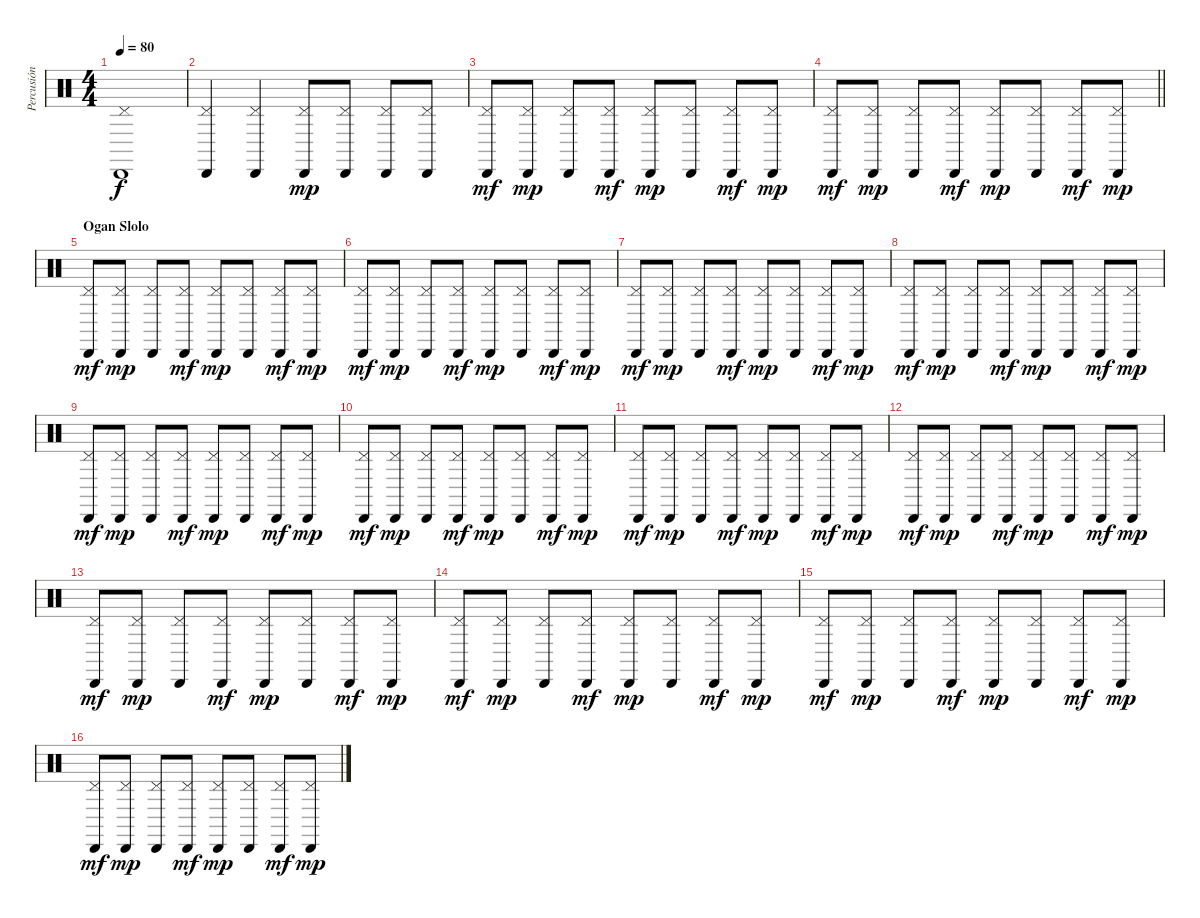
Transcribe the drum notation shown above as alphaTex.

\track ("Percusión" "Percusión") {instrument percussion}
\staff {score}
\articulation defaults
\ts (4 4)
\tempo 80
\clef neutral
\ks c
("Cabasa (hit)" "Pedal Hi-Hat (hit)").1{dy f} |
("Cabasa (hit)" "Pedal Hi-Hat (hit)").4 ("Cabasa (hit)" "Pedal Hi-Hat (hit)").4 ("Cabasa (hit)" "Pedal Hi-Hat (hit)").8{dy mp} ("Cabasa (hit)" "Pedal Hi-Hat (hit)").8 ("Cabasa (hit)" "Pedal Hi-Hat (hit)").8 ("Cabasa (hit)" "Pedal Hi-Hat (hit)").8 |
("Cabasa (hit)" "Pedal Hi-Hat (hit)").8{dy mf} ("Cabasa (hit)" "Pedal Hi-Hat (hit)").8{dy mp} ("Cabasa (hit)" "Pedal Hi-Hat (hit)").8 ("Cabasa (hit)" "Pedal Hi-Hat (hit)").8{dy mf} ("Cabasa (hit)" "Pedal Hi-Hat (hit)").8{dy mp} ("Cabasa (hit)" "Pedal Hi-Hat (hit)").8 ("Cabasa (hit)" "Pedal Hi-Hat (hit)").8{dy mf} ("Cabasa (hit)" "Pedal Hi-Hat (hit)").8{dy mp} |
\barLineRight lightlight
("Cabasa (hit)" "Pedal Hi-Hat (hit)").8{dy mf} ("Cabasa (hit)" "Pedal Hi-Hat (hit)").8{dy mp} ("Cabasa (hit)" "Pedal Hi-Hat (hit)").8 ("Cabasa (hit)" "Pedal Hi-Hat (hit)").8{dy mf} ("Cabasa (hit)" "Pedal Hi-Hat (hit)").8{dy mp} ("Cabasa (hit)" "Pedal Hi-Hat (hit)").8 ("Cabasa (hit)" "Pedal Hi-Hat (hit)").8{dy mf} ("Cabasa (hit)" "Pedal Hi-Hat (hit)").8{dy mp} |
\section ("" "Ogan Slolo")
("Cabasa (hit)" "Pedal Hi-Hat (hit)").8{dy mf} ("Cabasa (hit)" "Pedal Hi-Hat (hit)").8{dy mp} ("Cabasa (hit)" "Pedal Hi-Hat (hit)").8 ("Cabasa (hit)" "Pedal Hi-Hat (hit)").8{dy mf} ("Cabasa (hit)" "Pedal Hi-Hat (hit)").8{dy mp} ("Cabasa (hit)" "Pedal Hi-Hat (hit)").8 ("Cabasa (hit)" "Pedal Hi-Hat (hit)").8{dy mf} ("Cabasa (hit)" "Pedal Hi-Hat (hit)").8{dy mp} |
("Cabasa (hit)" "Pedal Hi-Hat (hit)").8{dy mf} ("Cabasa (hit)" "Pedal Hi-Hat (hit)").8{dy mp} ("Cabasa (hit)" "Pedal Hi-Hat (hit)").8 ("Cabasa (hit)" "Pedal Hi-Hat (hit)").8{dy mf} ("Cabasa (hit)" "Pedal Hi-Hat (hit)").8{dy mp} ("Cabasa (hit)" "Pedal Hi-Hat (hit)").8 ("Cabasa (hit)" "Pedal Hi-Hat (hit)").8{dy mf} ("Cabasa (hit)" "Pedal Hi-Hat (hit)").8{dy mp} |
("Cabasa (hit)" "Pedal Hi-Hat (hit)").8{dy mf} ("Cabasa (hit)" "Pedal Hi-Hat (hit)").8{dy mp} ("Cabasa (hit)" "Pedal Hi-Hat (hit)").8 ("Cabasa (hit)" "Pedal Hi-Hat (hit)").8{dy mf} ("Cabasa (hit)" "Pedal Hi-Hat (hit)").8{dy mp} ("Cabasa (hit)" "Pedal Hi-Hat (hit)").8 ("Cabasa (hit)" "Pedal Hi-Hat (hit)").8{dy mf} ("Cabasa (hit)" "Pedal Hi-Hat (hit)").8{dy mp} |
("Cabasa (hit)" "Pedal Hi-Hat (hit)").8{dy mf} ("Cabasa (hit)" "Pedal Hi-Hat (hit)").8{dy mp} ("Cabasa (hit)" "Pedal Hi-Hat (hit)").8 ("Cabasa (hit)" "Pedal Hi-Hat (hit)").8{dy mf} ("Cabasa (hit)" "Pedal Hi-Hat (hit)").8{dy mp} ("Cabasa (hit)" "Pedal Hi-Hat (hit)").8 ("Cabasa (hit)" "Pedal Hi-Hat (hit)").8{dy mf} ("Cabasa (hit)" "Pedal Hi-Hat (hit)").8{dy mp} |
("Cabasa (hit)" "Pedal Hi-Hat (hit)").8{dy mf} ("Cabasa (hit)" "Pedal Hi-Hat (hit)").8{dy mp} ("Cabasa (hit)" "Pedal Hi-Hat (hit)").8 ("Cabasa (hit)" "Pedal Hi-Hat (hit)").8{dy mf} ("Cabasa (hit)" "Pedal Hi-Hat (hit)").8{dy mp} ("Cabasa (hit)" "Pedal Hi-Hat (hit)").8 ("Cabasa (hit)" "Pedal Hi-Hat (hit)").8{dy mf} ("Cabasa (hit)" "Pedal Hi-Hat (hit)").8{dy mp} |
("Cabasa (hit)" "Pedal Hi-Hat (hit)").8{dy mf} ("Cabasa (hit)" "Pedal Hi-Hat (hit)").8{dy mp} ("Cabasa (hit)" "Pedal Hi-Hat (hit)").8 ("Cabasa (hit)" "Pedal Hi-Hat (hit)").8{dy mf} ("Cabasa (hit)" "Pedal Hi-Hat (hit)").8{dy mp} ("Cabasa (hit)" "Pedal Hi-Hat (hit)").8 ("Cabasa (hit)" "Pedal Hi-Hat (hit)").8{dy mf} ("Cabasa (hit)" "Pedal Hi-Hat (hit)").8{dy mp} |
("Cabasa (hit)" "Pedal Hi-Hat (hit)").8{dy mf} ("Cabasa (hit)" "Pedal Hi-Hat (hit)").8{dy mp} ("Cabasa (hit)" "Pedal Hi-Hat (hit)").8 ("Cabasa (hit)" "Pedal Hi-Hat (hit)").8{dy mf} ("Cabasa (hit)" "Pedal Hi-Hat (hit)").8{dy mp} ("Cabasa (hit)" "Pedal Hi-Hat (hit)").8 ("Cabasa (hit)" "Pedal Hi-Hat (hit)").8{dy mf} ("Cabasa (hit)" "Pedal Hi-Hat (hit)").8{dy mp} |
("Cabasa (hit)" "Pedal Hi-Hat (hit)").8{dy mf} ("Cabasa (hit)" "Pedal Hi-Hat (hit)").8{dy mp} ("Cabasa (hit)" "Pedal Hi-Hat (hit)").8 ("Cabasa (hit)" "Pedal Hi-Hat (hit)").8{dy mf} ("Cabasa (hit)" "Pedal Hi-Hat (hit)").8{dy mp} ("Cabasa (hit)" "Pedal Hi-Hat (hit)").8 ("Cabasa (hit)" "Pedal Hi-Hat (hit)").8{dy mf} ("Cabasa (hit)" "Pedal Hi-Hat (hit)").8{dy mp} |
("Cabasa (hit)" "Pedal Hi-Hat (hit)").8{dy mf} ("Cabasa (hit)" "Pedal Hi-Hat (hit)").8{dy mp} ("Cabasa (hit)" "Pedal Hi-Hat (hit)").8 ("Cabasa (hit)" "Pedal Hi-Hat (hit)").8{dy mf} ("Cabasa (hit)" "Pedal Hi-Hat (hit)").8{dy mp} ("Cabasa (hit)" "Pedal Hi-Hat (hit)").8 ("Cabasa (hit)" "Pedal Hi-Hat (hit)").8{dy mf} ("Cabasa (hit)" "Pedal Hi-Hat (hit)").8{dy mp} |
("Cabasa (hit)" "Pedal Hi-Hat (hit)").8{dy mf} ("Cabasa (hit)" "Pedal Hi-Hat (hit)").8{dy mp} ("Cabasa (hit)" "Pedal Hi-Hat (hit)").8 ("Cabasa (hit)" "Pedal Hi-Hat (hit)").8{dy mf} ("Cabasa (hit)" "Pedal Hi-Hat (hit)").8{dy mp} ("Cabasa (hit)" "Pedal Hi-Hat (hit)").8 ("Cabasa (hit)" "Pedal Hi-Hat (hit)").8{dy mf} ("Cabasa (hit)" "Pedal Hi-Hat (hit)").8{dy mp} |
("Cabasa (hit)" "Pedal Hi-Hat (hit)").8{dy mf} ("Cabasa (hit)" "Pedal Hi-Hat (hit)").8{dy mp} ("Cabasa (hit)" "Pedal Hi-Hat (hit)").8 ("Cabasa (hit)" "Pedal Hi-Hat (hit)").8{dy mf} ("Cabasa (hit)" "Pedal Hi-Hat (hit)").8{dy mp} ("Cabasa (hit)" "Pedal Hi-Hat (hit)").8 ("Cabasa (hit)" "Pedal Hi-Hat (hit)").8{dy mf} ("Cabasa (hit)" "Pedal Hi-Hat (hit)").8{dy mp} |
("Cabasa (hit)" "Pedal Hi-Hat (hit)").8{dy mf} ("Cabasa (hit)" "Pedal Hi-Hat (hit)").8{dy mp} ("Cabasa (hit)" "Pedal Hi-Hat (hit)").8 ("Cabasa (hit)" "Pedal Hi-Hat (hit)").8{dy mf} ("Cabasa (hit)" "Pedal Hi-Hat (hit)").8{dy mp} ("Cabasa (hit)" "Pedal Hi-Hat (hit)").8 ("Cabasa (hit)" "Pedal Hi-Hat (hit)").8{dy mf} ("Cabasa (hit)" "Pedal Hi-Hat (hit)").8{dy mp}
